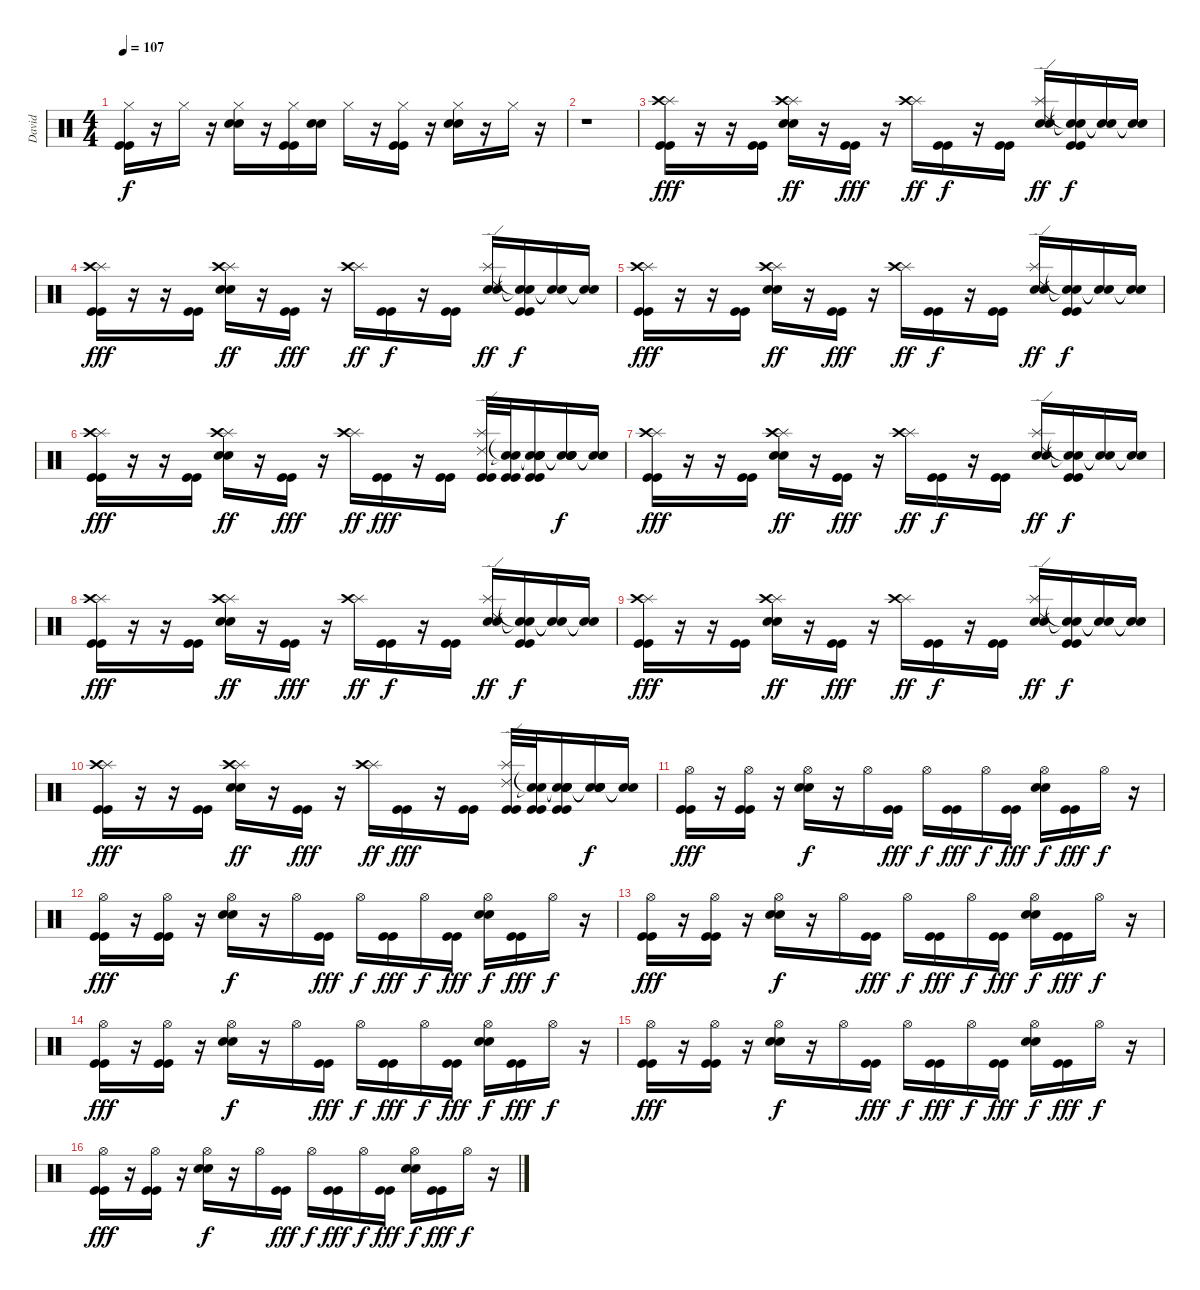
\track ("David" "David") {instrument percussion}
\staff {score}
\articulation defaults
\ts (4 4)
\tempo 107
\clef neutral
\ks c
("Hi-Hat (closed)" "Kick (hit)" "Kick (hit)").16{dy f} r.16 "Hi-Hat (closed)".16 r.16 ("Hi-Hat (closed)" "Electric Snare (hit)" "Electric Snare (hit)").16 r.16 ("Hi-Hat (closed)" "Kick (hit)" "Kick (hit)").16 ("Electric Snare (hit)" "Electric Snare (hit)").16 "Hi-Hat (closed)".16 r.16 ("Hi-Hat (closed)" "Kick (hit)" "Kick (hit)").16 r.16 ("Hi-Hat (closed)" "Electric Snare (hit)" "Electric Snare (hit)").16 r.16 "Hi-Hat (closed)".16 r.16 |
r.1 |
("Splash (hit)" "Crash high (hit)" "Kick (hit)" "Kick (hit)").16{dy fff} r.16 r.16 ("Kick (hit)" "Kick (hit)").16 ("Splash (hit)" "Crash high (hit)" "Electric Snare (hit)" "Electric Snare (hit)").16{dy ff} r.16 ("Kick (hit)" "Kick (hit)").16{dy fff} r.16 ("Splash (hit)" "Crash high (hit)").16{dy ff} ("Kick (hit)" "Kick (hit)").16{dy f} r.16 ("Kick (hit)" "Kick (hit)").16 ("Splash (hit)" "Ride (edge) 2" "Electric Snare (hit)" "Electric Snare (hit)").16{dy ff} ("Snare (hit)"{t} "Snare (hit)"{t} "Kick (hit)" "Kick (hit)").16{dy f} ("Snare (hit)"{t} "Snare (hit)"{t}).16 ("Snare (hit)"{t} "Snare (hit)"{t}).16 |
("Splash (hit)" "Crash high (hit)" "Kick (hit)" "Kick (hit)").16{dy fff} r.16 r.16 ("Kick (hit)" "Kick (hit)").16 ("Splash (hit)" "Crash high (hit)" "Electric Snare (hit)" "Electric Snare (hit)").16{dy ff} r.16 ("Kick (hit)" "Kick (hit)").16{dy fff} r.16 ("Splash (hit)" "Crash high (hit)").16{dy ff} ("Kick (hit)" "Kick (hit)").16{dy f} r.16 ("Kick (hit)" "Kick (hit)").16 ("Splash (hit)" "Ride (edge) 2" "Electric Snare (hit)" "Electric Snare (hit)").16{dy ff} ("Snare (hit)"{t} "Snare (hit)"{t} "Kick (hit)" "Kick (hit)").16{dy f} ("Snare (hit)"{t} "Snare (hit)"{t}).16 ("Snare (hit)"{t} "Snare (hit)"{t}).16 |
("Splash (hit)" "Crash high (hit)" "Kick (hit)" "Kick (hit)").16{dy fff} r.16 r.16 ("Kick (hit)" "Kick (hit)").16 ("Splash (hit)" "Crash high (hit)" "Electric Snare (hit)" "Electric Snare (hit)").16{dy ff} r.16 ("Kick (hit)" "Kick (hit)").16{dy fff} r.16 ("Splash (hit)" "Crash high (hit)").16{dy ff} ("Kick (hit)" "Kick (hit)").16{dy f} r.16 ("Kick (hit)" "Kick (hit)").16 ("Splash (hit)" "Ride (edge) 2" "Electric Snare (hit)" "Electric Snare (hit)").16{dy ff} ("Snare (hit)"{t} "Snare (hit)"{t} "Kick (hit)" "Kick (hit)").16{dy f} ("Snare (hit)"{t} "Snare (hit)"{t}).16 ("Snare (hit)"{t} "Snare (hit)"{t}).16 |
("Splash (hit)" "Crash high (hit)" "Kick (hit)" "Kick (hit)").16{dy fff} r.16 r.16 ("Kick (hit)" "Kick (hit)").16 ("Splash (hit)" "Crash high (hit)" "Electric Snare (hit)" "Electric Snare (hit)").16{dy ff} r.16 ("Kick (hit)" "Kick (hit)").16{dy fff} r.16 ("Splash (hit)" "Crash high (hit)").16{dy ff} ("Kick (hit)" "Kick (hit)").16{dy fff} r.16 ("Kick (hit)" "Kick (hit)").16 ("Splash (hit)" "Ride (edge) 2" "Kick (hit)" "Kick (hit)").32 ("Snare (hit)"{t} "Snare (hit)"{t} "Kick (hit)" "Kick (hit)").32 ("Snare (hit)"{t} "Snare (hit)"{t} "Electric Snare (hit)" "Electric Snare (hit)" "Kick (hit)" "Kick (hit)").16 ("Snare (hit)"{t} "Snare (hit)"{t} "Electric Snare (hit)" "Electric Snare (hit)").16{dy f} ("Snare (hit)"{t} "Snare (hit)"{t}).16 |
("Splash (hit)" "Crash high (hit)" "Kick (hit)" "Kick (hit)").16{dy fff} r.16 r.16 ("Kick (hit)" "Kick (hit)").16 ("Splash (hit)" "Crash high (hit)" "Electric Snare (hit)" "Electric Snare (hit)").16{dy ff} r.16 ("Kick (hit)" "Kick (hit)").16{dy fff} r.16 ("Splash (hit)" "Crash high (hit)").16{dy ff} ("Kick (hit)" "Kick (hit)").16{dy f} r.16 ("Kick (hit)" "Kick (hit)").16 ("Splash (hit)" "Ride (edge) 2" "Electric Snare (hit)" "Electric Snare (hit)").16{dy ff} ("Snare (hit)"{t} "Snare (hit)"{t} "Kick (hit)" "Kick (hit)").16{dy f} ("Snare (hit)"{t} "Snare (hit)"{t}).16 ("Snare (hit)"{t} "Snare (hit)"{t}).16 |
("Splash (hit)" "Crash high (hit)" "Kick (hit)" "Kick (hit)").16{dy fff} r.16 r.16 ("Kick (hit)" "Kick (hit)").16 ("Splash (hit)" "Crash high (hit)" "Electric Snare (hit)" "Electric Snare (hit)").16{dy ff} r.16 ("Kick (hit)" "Kick (hit)").16{dy fff} r.16 ("Splash (hit)" "Crash high (hit)").16{dy ff} ("Kick (hit)" "Kick (hit)").16{dy f} r.16 ("Kick (hit)" "Kick (hit)").16 ("Splash (hit)" "Ride (edge) 2" "Electric Snare (hit)" "Electric Snare (hit)").16{dy ff} ("Snare (hit)"{t} "Snare (hit)"{t} "Kick (hit)" "Kick (hit)").16{dy f} ("Snare (hit)"{t} "Snare (hit)"{t}).16 ("Snare (hit)"{t} "Snare (hit)"{t}).16 |
("Splash (hit)" "Crash high (hit)" "Kick (hit)" "Kick (hit)").16{dy fff} r.16 r.16 ("Kick (hit)" "Kick (hit)").16 ("Splash (hit)" "Crash high (hit)" "Electric Snare (hit)" "Electric Snare (hit)").16{dy ff} r.16 ("Kick (hit)" "Kick (hit)").16{dy fff} r.16 ("Splash (hit)" "Crash high (hit)").16{dy ff} ("Kick (hit)" "Kick (hit)").16{dy f} r.16 ("Kick (hit)" "Kick (hit)").16 ("Splash (hit)" "Ride (edge) 2" "Electric Snare (hit)" "Electric Snare (hit)").16{dy ff} ("Snare (hit)"{t} "Snare (hit)"{t} "Kick (hit)" "Kick (hit)").16{dy f} ("Snare (hit)"{t} "Snare (hit)"{t}).16 ("Snare (hit)"{t} "Snare (hit)"{t}).16 |
("Splash (hit)" "Crash high (hit)" "Kick (hit)" "Kick (hit)").16{dy fff} r.16 r.16 ("Kick (hit)" "Kick (hit)").16 ("Splash (hit)" "Crash high (hit)" "Electric Snare (hit)" "Electric Snare (hit)").16{dy ff} r.16 ("Kick (hit)" "Kick (hit)").16{dy fff} r.16 ("Splash (hit)" "Crash high (hit)").16{dy ff} ("Kick (hit)" "Kick (hit)").16{dy fff} r.16 ("Kick (hit)" "Kick (hit)").16 ("Splash (hit)" "Ride (edge) 2" "Kick (hit)" "Kick (hit)").32 ("Snare (hit)"{t} "Snare (hit)"{t} "Kick (hit)" "Kick (hit)").32 ("Snare (hit)"{t} "Snare (hit)"{t} "Electric Snare (hit)" "Electric Snare (hit)" "Kick (hit)" "Kick (hit)").16 ("Snare (hit)"{t} "Snare (hit)"{t} "Electric Snare (hit)" "Electric Snare (hit)").16{dy f} ("Snare (hit)"{t} "Snare (hit)"{t}).16 |
("Hi-Hat (open)" "Kick (hit)" "Kick (hit)").16{dy fff} r.16 ("Hi-Hat (open)" "Kick (hit)" "Kick (hit)").16 r.16 ("Hi-Hat (open)" "Electric Snare (hit)" "Electric Snare (hit)").16{dy f} r.16 "Hi-Hat (open)".16 ("Kick (hit)" "Kick (hit)").16{dy fff} "Hi-Hat (open)".16{dy f} ("Kick (hit)" "Kick (hit)").16{dy fff} "Hi-Hat (open)".16{dy f} ("Kick (hit)" "Kick (hit)").16{dy fff} ("Hi-Hat (open)" "Electric Snare (hit)" "Electric Snare (hit)").16{dy f} ("Kick (hit)" "Kick (hit)").16{dy fff} "Hi-Hat (open)".16{dy f} r.16 |
("Hi-Hat (open)" "Kick (hit)" "Kick (hit)").16{dy fff} r.16 ("Hi-Hat (open)" "Kick (hit)" "Kick (hit)").16 r.16 ("Hi-Hat (open)" "Electric Snare (hit)" "Electric Snare (hit)").16{dy f} r.16 "Hi-Hat (open)".16 ("Kick (hit)" "Kick (hit)").16{dy fff} "Hi-Hat (open)".16{dy f} ("Kick (hit)" "Kick (hit)").16{dy fff} "Hi-Hat (open)".16{dy f} ("Kick (hit)" "Kick (hit)").16{dy fff} ("Hi-Hat (open)" "Electric Snare (hit)" "Electric Snare (hit)").16{dy f} ("Kick (hit)" "Kick (hit)").16{dy fff} "Hi-Hat (open)".16{dy f} r.16 |
("Hi-Hat (open)" "Kick (hit)" "Kick (hit)").16{dy fff} r.16 ("Hi-Hat (open)" "Kick (hit)" "Kick (hit)").16 r.16 ("Hi-Hat (open)" "Electric Snare (hit)" "Electric Snare (hit)").16{dy f} r.16 "Hi-Hat (open)".16 ("Kick (hit)" "Kick (hit)").16{dy fff} "Hi-Hat (open)".16{dy f} ("Kick (hit)" "Kick (hit)").16{dy fff} "Hi-Hat (open)".16{dy f} ("Kick (hit)" "Kick (hit)").16{dy fff} ("Hi-Hat (open)" "Electric Snare (hit)" "Electric Snare (hit)").16{dy f} ("Kick (hit)" "Kick (hit)").16{dy fff} "Hi-Hat (open)".16{dy f} r.16 |
("Hi-Hat (open)" "Kick (hit)" "Kick (hit)").16{dy fff} r.16 ("Hi-Hat (open)" "Kick (hit)" "Kick (hit)").16 r.16 ("Hi-Hat (open)" "Electric Snare (hit)" "Electric Snare (hit)").16{dy f} r.16 "Hi-Hat (open)".16 ("Kick (hit)" "Kick (hit)").16{dy fff} "Hi-Hat (open)".16{dy f} ("Kick (hit)" "Kick (hit)").16{dy fff} "Hi-Hat (open)".16{dy f} ("Kick (hit)" "Kick (hit)").16{dy fff} ("Hi-Hat (open)" "Electric Snare (hit)" "Electric Snare (hit)").16{dy f} ("Kick (hit)" "Kick (hit)").16{dy fff} "Hi-Hat (open)".16{dy f} r.16 |
("Hi-Hat (open)" "Kick (hit)" "Kick (hit)").16{dy fff} r.16 ("Hi-Hat (open)" "Kick (hit)" "Kick (hit)").16 r.16 ("Hi-Hat (open)" "Electric Snare (hit)" "Electric Snare (hit)").16{dy f} r.16 "Hi-Hat (open)".16 ("Kick (hit)" "Kick (hit)").16{dy fff} "Hi-Hat (open)".16{dy f} ("Kick (hit)" "Kick (hit)").16{dy fff} "Hi-Hat (open)".16{dy f} ("Kick (hit)" "Kick (hit)").16{dy fff} ("Hi-Hat (open)" "Electric Snare (hit)" "Electric Snare (hit)").16{dy f} ("Kick (hit)" "Kick (hit)").16{dy fff} "Hi-Hat (open)".16{dy f} r.16 |
("Hi-Hat (open)" "Kick (hit)" "Kick (hit)").16{dy fff} r.16 ("Hi-Hat (open)" "Kick (hit)" "Kick (hit)").16 r.16 ("Hi-Hat (open)" "Electric Snare (hit)" "Electric Snare (hit)").16{dy f} r.16 "Hi-Hat (open)".16 ("Kick (hit)" "Kick (hit)").16{dy fff} "Hi-Hat (open)".16{dy f} ("Kick (hit)" "Kick (hit)").16{dy fff} "Hi-Hat (open)".16{dy f} ("Kick (hit)" "Kick (hit)").16{dy fff} ("Hi-Hat (open)" "Electric Snare (hit)" "Electric Snare (hit)").16{dy f} ("Kick (hit)" "Kick (hit)").16{dy fff} "Hi-Hat (open)".16{dy f} r.16
